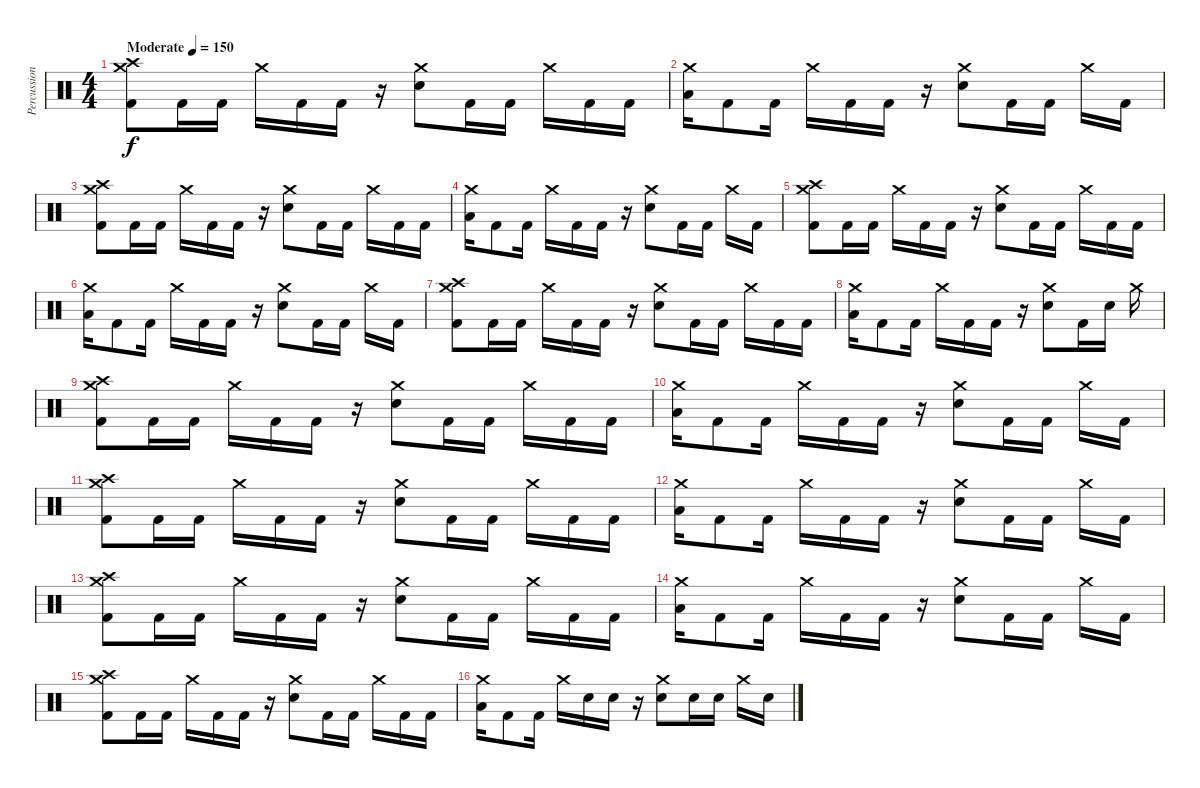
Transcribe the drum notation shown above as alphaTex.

\track ("Percussion" "Percussion") {instrument percussion}
\staff {score}
\articulation defaults
\ts (4 4)
\tempo (150 "Moderate")
\clef neutral
\ks c
("Crash high (hit)" "Crash medium (hit)" "Kick (hit) 2").8{dy f} "Kick (hit) 2".16 "Kick (hit) 2".16 "Crash medium (hit)".16 "Kick (hit) 2".16 "Kick (hit) 2".16 r.16 ("Crash medium (hit)" "Snare (hit) 2").8 "Kick (hit) 2".16 "Kick (hit) 2".16 "Crash medium (hit)".16 "Kick (hit) 2".16 "Kick (hit) 2".16 |
("Crash medium (hit)" "Low Floor Tom (hit)").16 "Kick (hit) 2".8 "Kick (hit) 2".16 "Crash medium (hit)".16 "Kick (hit) 2".16 "Kick (hit) 2".16 r.16 ("Crash medium (hit)" "Snare (hit) 2").8 "Kick (hit) 2".16 "Kick (hit) 2".16 "Crash medium (hit)".16 "Kick (hit) 2".16 |
("Crash high (hit)" "Crash medium (hit)" "Kick (hit) 2").8 "Kick (hit) 2".16 "Kick (hit) 2".16 "Crash medium (hit)".16 "Kick (hit) 2".16 "Kick (hit) 2".16 r.16 ("Crash medium (hit)" "Snare (hit) 2").8 "Kick (hit) 2".16 "Kick (hit) 2".16 "Crash medium (hit)".16 "Kick (hit) 2".16 "Kick (hit) 2".16 |
("Crash medium (hit)" "Low Floor Tom (hit)").16 "Kick (hit) 2".8 "Kick (hit) 2".16 "Crash medium (hit)".16 "Kick (hit) 2".16 "Kick (hit) 2".16 r.16 ("Crash medium (hit)" "Snare (hit) 2").8 "Kick (hit) 2".16 "Kick (hit) 2".16 "Crash medium (hit)".16 "Kick (hit) 2".16 |
("Crash high (hit)" "Crash medium (hit)" "Kick (hit) 2").8 "Kick (hit) 2".16 "Kick (hit) 2".16 "Crash medium (hit)".16 "Kick (hit) 2".16 "Kick (hit) 2".16 r.16 ("Crash medium (hit)" "Snare (hit) 2").8 "Kick (hit) 2".16 "Kick (hit) 2".16 "Crash medium (hit)".16 "Kick (hit) 2".16 "Kick (hit) 2".16 |
("Crash medium (hit)" "Low Floor Tom (hit)").16 "Kick (hit) 2".8 "Kick (hit) 2".16 "Crash medium (hit)".16 "Kick (hit) 2".16 "Kick (hit) 2".16 r.16 ("Crash medium (hit)" "Snare (hit) 2").8 "Kick (hit) 2".16 "Kick (hit) 2".16 "Crash medium (hit)".16 "Kick (hit) 2".16 |
("Crash high (hit)" "Crash medium (hit)" "Kick (hit) 2").8 "Kick (hit) 2".16 "Kick (hit) 2".16 "Crash medium (hit)".16 "Kick (hit) 2".16 "Kick (hit) 2".16 r.16 ("Crash medium (hit)" "Snare (hit) 2").8 "Kick (hit) 2".16 "Kick (hit) 2".16 "Crash medium (hit)".16 "Kick (hit) 2".16 "Kick (hit) 2".16 |
("Crash medium (hit)" "Low Floor Tom (hit)").16 "Kick (hit) 2".8 "Kick (hit) 2".16 "Crash medium (hit)".16 "Kick (hit) 2".16 "Kick (hit) 2".16 r.16 ("Crash medium (hit)" "Snare (hit) 2").8 "Kick (hit) 2".16 "Snare (hit) 2".16 "Crash medium (hit)".16 |
("Crash high (hit)" "Crash medium (hit)" "Kick (hit) 2").8 "Kick (hit) 2".16 "Kick (hit) 2".16 "Crash medium (hit)".16 "Kick (hit) 2".16 "Kick (hit) 2".16 r.16 ("Crash medium (hit)" "Snare (hit) 2").8 "Kick (hit) 2".16 "Kick (hit) 2".16 "Crash medium (hit)".16 "Kick (hit) 2".16 "Kick (hit) 2".16 |
("Crash medium (hit)" "Low Floor Tom (hit)").16 "Kick (hit) 2".8 "Kick (hit) 2".16 "Crash medium (hit)".16 "Kick (hit) 2".16 "Kick (hit) 2".16 r.16 ("Crash medium (hit)" "Snare (hit) 2").8 "Kick (hit) 2".16 "Kick (hit) 2".16 "Crash medium (hit)".16 "Kick (hit) 2".16 |
("Crash high (hit)" "Crash medium (hit)" "Kick (hit) 2").8 "Kick (hit) 2".16 "Kick (hit) 2".16 "Crash medium (hit)".16 "Kick (hit) 2".16 "Kick (hit) 2".16 r.16 ("Crash medium (hit)" "Snare (hit) 2").8 "Kick (hit) 2".16 "Kick (hit) 2".16 "Crash medium (hit)".16 "Kick (hit) 2".16 "Kick (hit) 2".16 |
("Crash medium (hit)" "Low Floor Tom (hit)").16 "Kick (hit) 2".8 "Kick (hit) 2".16 "Crash medium (hit)".16 "Kick (hit) 2".16 "Kick (hit) 2".16 r.16 ("Crash medium (hit)" "Snare (hit) 2").8 "Kick (hit) 2".16 "Kick (hit) 2".16 "Crash medium (hit)".16 "Kick (hit) 2".16 |
("Crash high (hit)" "Crash medium (hit)" "Kick (hit) 2").8 "Kick (hit) 2".16 "Kick (hit) 2".16 "Crash medium (hit)".16 "Kick (hit) 2".16 "Kick (hit) 2".16 r.16 ("Crash medium (hit)" "Snare (hit) 2").8 "Kick (hit) 2".16 "Kick (hit) 2".16 "Crash medium (hit)".16 "Kick (hit) 2".16 "Kick (hit) 2".16 |
("Crash medium (hit)" "Low Floor Tom (hit)").16 "Kick (hit) 2".8 "Kick (hit) 2".16 "Crash medium (hit)".16 "Kick (hit) 2".16 "Kick (hit) 2".16 r.16 ("Crash medium (hit)" "Snare (hit) 2").8 "Kick (hit) 2".16 "Kick (hit) 2".16 "Crash medium (hit)".16 "Kick (hit) 2".16 |
("Crash high (hit)" "Crash medium (hit)" "Kick (hit) 2").8 "Kick (hit) 2".16 "Kick (hit) 2".16 "Crash medium (hit)".16 "Kick (hit) 2".16 "Kick (hit) 2".16 r.16 ("Crash medium (hit)" "Snare (hit) 2").8 "Kick (hit) 2".16 "Kick (hit) 2".16 "Crash medium (hit)".16 "Kick (hit) 2".16 "Kick (hit) 2".16 |
("Crash medium (hit)" "Low Floor Tom (hit)").16 "Kick (hit) 2".8 "Kick (hit) 2".16 "Crash medium (hit)".16 "Snare (hit) 2".16 "Snare (hit) 2".16 r.16 ("Crash medium (hit)" "Snare (hit) 2").8 "Snare (hit) 2".16 "Snare (hit) 2".16 "Crash medium (hit)".16 "Snare (hit) 2".16
